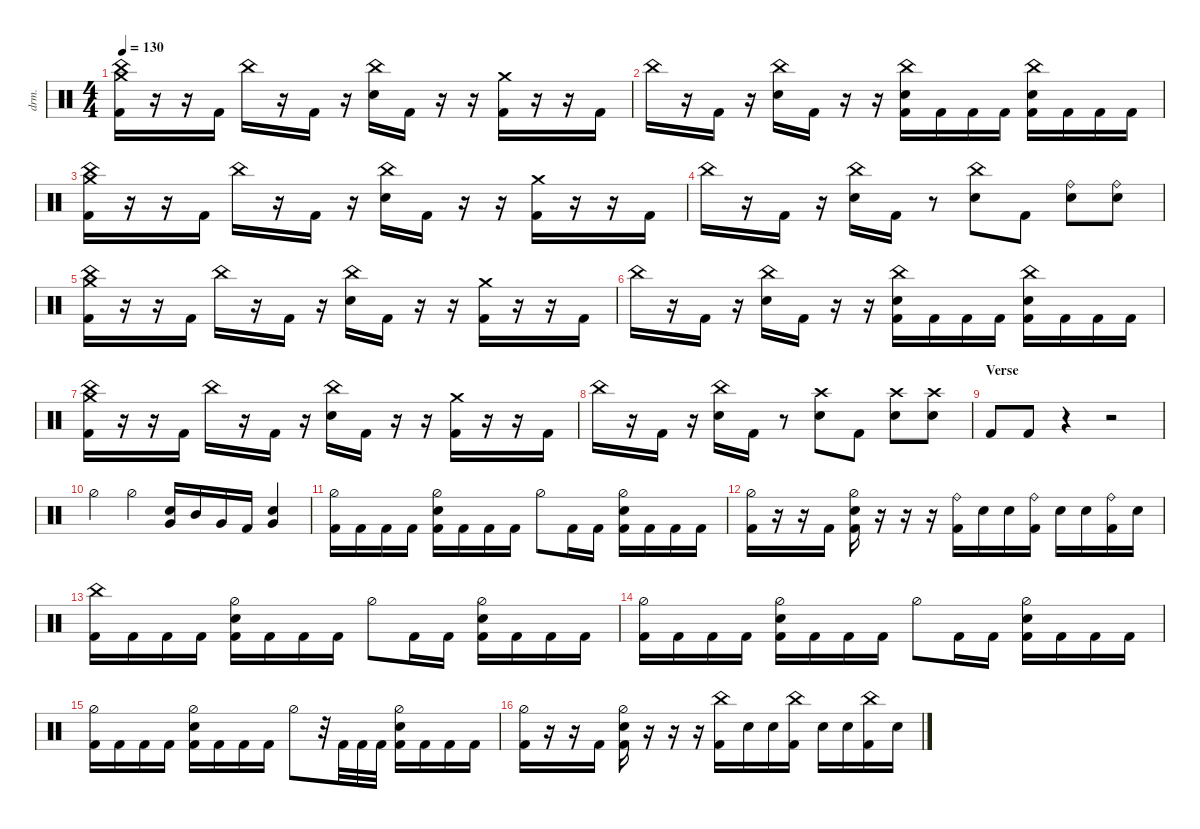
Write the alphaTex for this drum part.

\defaultSystemsLayout 4
\hideDynamics
\bracketExtendMode nobrackets
\track ("Drums - Šimon" "drm.") {instrument percussion}
\staff {score}
\articulation defaults
\ts (4 4)
\tempo 130
\clef neutral
\ks c
("Kick (hit) 2" "China (hit)" "Crash medium (hit)").16{dy ff beam Down} r.16{beam Down} r.16{beam Down} "Kick (hit) 2".16{beam Down} "China (hit)".16{beam Down} r.16{beam Down} "Kick (hit) 2".16{beam Down} r.16{beam Down} ("China (hit)" "Snare (hit) 2").16{beam Down} "Kick (hit) 2".16{beam Down} r.16{beam Down} r.16{beam Down} ("Kick (hit) 2" "Crash medium (hit)").16{beam Down} r.16{beam Down} r.16{beam Down} "Kick (hit) 2".16{beam Down} |
"China (hit)".16{beam Down} r.16{beam Down} "Kick (hit) 2".16{beam Down} r.16{beam Down} ("China (hit)" "Snare (hit) 2").16{beam Down} "Kick (hit) 2".16{beam Down} r.16{beam Down} r.16{beam Down} ("Kick (hit) 2" "China (hit)" "Snare (hit) 2").16{beam Down} "Kick (hit) 2".16{beam Down} "Kick (hit) 2".16{beam Down} "Kick (hit) 2".16{beam Down} ("Kick (hit) 2" "China (hit)" "Snare (hit) 2").16{beam Down} "Kick (hit) 2".16{beam Down} "Kick (hit) 2".16{beam Down} "Kick (hit) 2".16{beam Down} |
("Kick (hit) 2" "China (hit)" "Crash medium (hit)").16{beam Down} r.16{beam Down} r.16{beam Down} "Kick (hit) 2".16{beam Down} "China (hit)".16{beam Down} r.16{beam Down} "Kick (hit) 2".16{beam Down} r.16{beam Down} ("China (hit)" "Snare (hit) 2").16{beam Down} "Kick (hit) 2".16{beam Down} r.16{beam Down} r.16{beam Down} ("Kick (hit) 2" "Crash medium (hit)").16{beam Down} r.16{beam Down} r.16{beam Down} "Kick (hit) 2".16{beam Down} |
"China (hit)".16{beam Down} r.16{beam Down} "Kick (hit) 2".16{beam Down} r.16{beam Down} ("China (hit)" "Snare (hit) 2").16{beam Down} "Kick (hit) 2".16{beam Down} r.8{beam Down} ("Snare (hit) 2" "China (hit)").8{beam Down} "Kick (hit) 2".8{beam Down} ("Snare (hit) 2" "Ride (bell)").8{beam Down} ("Snare (hit) 2" "Ride (bell)").8{beam Down} |
("Kick (hit) 2" "China (hit)" "Crash medium (hit)").16{beam Down} r.16{beam Down} r.16{beam Down} "Kick (hit) 2".16{beam Down} "China (hit)".16{beam Down} r.16{beam Down} "Kick (hit) 2".16{beam Down} r.16{beam Down} ("China (hit)" "Snare (hit) 2").16{beam Down} "Kick (hit) 2".16{beam Down} r.16{beam Down} r.16{beam Down} ("Kick (hit) 2" "Crash medium (hit)").16{beam Down} r.16{beam Down} r.16{beam Down} "Kick (hit) 2".16{beam Down} |
"China (hit)".16{beam Down} r.16{beam Down} "Kick (hit) 2".16{beam Down} r.16{beam Down} ("China (hit)" "Snare (hit) 2").16{beam Down} "Kick (hit) 2".16{beam Down} r.16{beam Down} r.16{beam Down} ("Kick (hit) 2" "China (hit)" "Snare (hit) 2").16{beam Down} "Kick (hit) 2".16{beam Down} "Kick (hit) 2".16{beam Down} "Kick (hit) 2".16{beam Down} ("Kick (hit) 2" "China (hit)" "Snare (hit) 2").16{beam Down} "Kick (hit) 2".16{beam Down} "Kick (hit) 2".16{beam Down} "Kick (hit) 2".16{beam Down} |
("Kick (hit) 2" "China (hit)" "Crash medium (hit)").16{beam Down} r.16{beam Down} r.16{beam Down} "Kick (hit) 2".16{beam Down} "China (hit)".16{beam Down} r.16{beam Down} "Kick (hit) 2".16{beam Down} r.16{beam Down} ("China (hit)" "Snare (hit) 2").16{beam Down} "Kick (hit) 2".16{beam Down} r.16{beam Down} r.16{beam Down} ("Kick (hit) 2" "Crash medium (hit)").16{beam Down} r.16{beam Down} r.16{beam Down} "Kick (hit) 2".16{beam Down} |
"China (hit)".16{beam Down} r.16{beam Down} "Kick (hit) 2".16{beam Down} r.16{beam Down} ("China (hit)" "Snare (hit) 2").16{beam Down} "Kick (hit) 2".16{beam Down} r.8{beam Down} ("Snare (hit) 2" "Crash high (hit)").8{beam Down} "Kick (hit) 2".8{beam Down} ("Snare (hit) 2" "Crash high (hit)").8{beam Down} ("Snare (hit) 2" "Crash high (hit)").8{beam Down} |
\section ("" "Verse")
"Kick (hit) 2".8{beam Up} "Kick (hit) 2".8{beam Up} r.4{beam Down} r.2{beam Down} |
"Hi-Hat (half)".4{beam Down} "Hi-Hat (half)".4{beam Down} ("Snare (hit) 2" "Very Low Tom (hit)").16{beam Up} "Mid Tom (hit)".16{beam Up} "Very Low Tom (hit)".16{beam Up} "Kick (hit) 2".16{beam Up} ("Snare (hit) 2" "Very Low Tom (hit)").4{beam Up} |
("Kick (hit) 2" "Hi-Hat (half)").16{beam Down} "Kick (hit) 2".16{beam Down} "Kick (hit) 2".16{beam Down} "Kick (hit) 2".16{beam Down} ("Kick (hit) 2" "Snare (hit) 2" "Hi-Hat (half)").16{beam Down} "Kick (hit) 2".16{beam Down} "Kick (hit) 2".16{beam Down} "Kick (hit) 2".16{beam Down} "Hi-Hat (half)".8{beam Down} "Kick (hit) 2".16{beam Down} "Kick (hit) 2".16{beam Down} ("Kick (hit) 2" "Snare (hit) 2" "Hi-Hat (half)").16{beam Down} "Kick (hit) 2".16{beam Down} "Kick (hit) 2".16{beam Down} "Kick (hit) 2".16{beam Down} |
("Kick (hit) 2" "Hi-Hat (half)").16{beam Down} r.16{beam Down} r.16{beam Down} "Kick (hit) 2".16{beam Down} ("Kick (hit) 2" "Snare (hit) 2" "Hi-Hat (half)").16{beam Down} r.16{beam Down} r.16{beam Down} r.16{beam Down} ("Kick (hit) 2" "Ride (bell)").16{beam Down} "Snare (hit) 2".16{beam Down} "Snare (hit) 2".16{beam Down} ("Kick (hit) 2" "Ride (bell)").16{beam Down} "Snare (hit) 2".16{beam Down} "Snare (hit) 2".16{beam Down} ("Kick (hit) 2" "Ride (bell)").16{beam Down} "Snare (hit) 2".16{beam Down} |
("Kick (hit) 2" "China (hit)").16{beam Down} "Kick (hit) 2".16{beam Down} "Kick (hit) 2".16{beam Down} "Kick (hit) 2".16{beam Down} ("Kick (hit) 2" "Snare (hit) 2" "Hi-Hat (half)").16{beam Down} "Kick (hit) 2".16{beam Down} "Kick (hit) 2".16{beam Down} "Kick (hit) 2".16{beam Down} "Hi-Hat (half)".8{beam Down} "Kick (hit) 2".16{beam Down} "Kick (hit) 2".16{beam Down} ("Kick (hit) 2" "Snare (hit) 2" "Hi-Hat (half)").16{beam Down} "Kick (hit) 2".16{beam Down} "Kick (hit) 2".16{beam Down} "Kick (hit) 2".16{beam Down} |
("Kick (hit) 2" "Hi-Hat (half)").16{beam Down} "Kick (hit) 2".16{beam Down} "Kick (hit) 2".16{beam Down} "Kick (hit) 2".16{beam Down} ("Kick (hit) 2" "Snare (hit) 2" "Hi-Hat (half)").16{beam Down} "Kick (hit) 2".16{beam Down} "Kick (hit) 2".16{beam Down} "Kick (hit) 2".16{beam Down} "Hi-Hat (half)".8{beam Down} "Kick (hit) 2".16{beam Down} "Kick (hit) 2".16{beam Down} ("Kick (hit) 2" "Snare (hit) 2" "Hi-Hat (half)").16{beam Down} "Kick (hit) 2".16{beam Down} "Kick (hit) 2".16{beam Down} "Kick (hit) 2".16{beam Down} |
("Kick (hit) 2" "Hi-Hat (half)").16{beam Down} "Kick (hit) 2".16{beam Down} "Kick (hit) 2".16{beam Down} "Kick (hit) 2".16{beam Down} ("Kick (hit) 2" "Snare (hit) 2" "Hi-Hat (half)").16{beam Down} "Kick (hit) 2".16{beam Down} "Kick (hit) 2".16{beam Down} "Kick (hit) 2".16{beam Down} "Hi-Hat (half)".8{beam Down} r.32{beam Down} "Kick (hit) 2".32{beam Down} "Kick (hit) 2".32{beam Down} "Kick (hit) 2".32{beam Down} ("Kick (hit) 2" "Snare (hit) 2" "Hi-Hat (half)").16{beam Down} "Kick (hit) 2".16{beam Down} "Kick (hit) 2".16{beam Down} "Kick (hit) 2".16{beam Down} |
("Kick (hit) 2" "Hi-Hat (half)").16{beam Down} r.16{beam Down} r.16{beam Down} "Kick (hit) 2".16{beam Down} ("Kick (hit) 2" "Snare (hit) 2" "Hi-Hat (half)").16{beam Down} r.16{beam Down} r.16{beam Down} r.16{beam Down} ("Kick (hit) 2" "China (hit)").16{beam Down} "Snare (hit) 2".16{beam Down} "Snare (hit) 2".16{beam Down} ("Kick (hit) 2" "China (hit)").16{beam Down} "Snare (hit) 2".16{beam Down} "Snare (hit) 2".16{beam Down} ("Kick (hit) 2" "China (hit)").16{beam Down} "Snare (hit) 2".16{beam Down}
